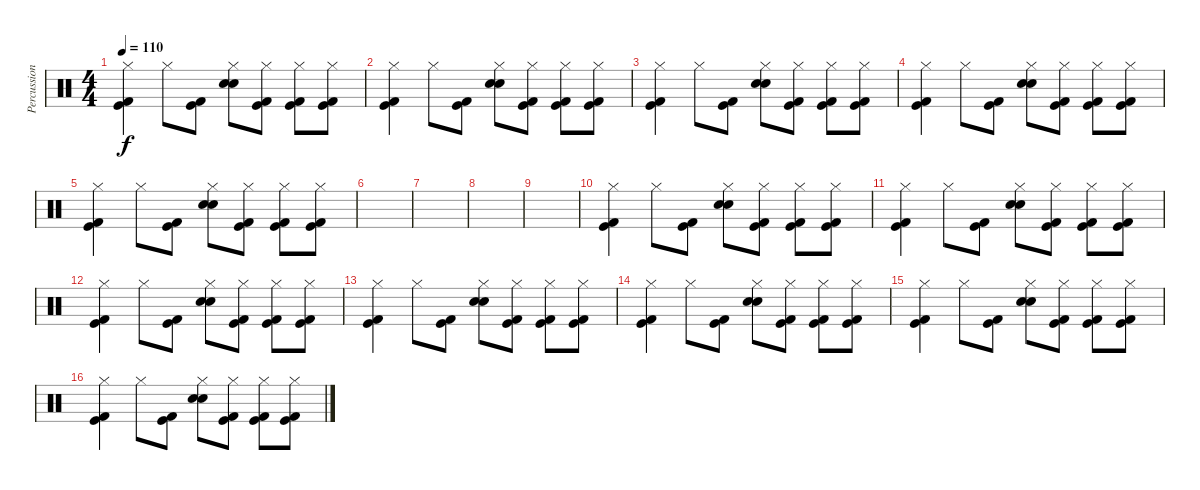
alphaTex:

\track ("Percussions" "Percussion") {instrument percussion}
\staff {score}
\articulation defaults
\ts (4 4)
\tempo 110
\clef neutral
\ks c
("Kick (hit) 2" "Kick (hit)" "Hi-Hat (closed)").4{dy f} "Hi-Hat (closed)".8 ("Kick (hit) 2" "Kick (hit)").8 ("Snare (hit) 2" "Hi-Hat (closed)" "Electric Snare (hit)").8 ("Kick (hit) 2" "Kick (hit)" "Hi-Hat (closed)").8 ("Kick (hit) 2" "Kick (hit)" "Hi-Hat (closed)").8 ("Kick (hit) 2" "Kick (hit)" "Hi-Hat (closed)").8 |
("Kick (hit) 2" "Kick (hit)" "Hi-Hat (closed)").4 "Hi-Hat (closed)".8 ("Kick (hit) 2" "Kick (hit)").8 ("Snare (hit) 2" "Hi-Hat (closed)" "Electric Snare (hit)").8 ("Kick (hit) 2" "Kick (hit)" "Hi-Hat (closed)").8 ("Kick (hit) 2" "Kick (hit)" "Hi-Hat (closed)").8 ("Kick (hit) 2" "Kick (hit)" "Hi-Hat (closed)").8 |
("Kick (hit) 2" "Kick (hit)" "Hi-Hat (closed)").4 "Hi-Hat (closed)".8 ("Kick (hit) 2" "Kick (hit)").8 ("Snare (hit) 2" "Hi-Hat (closed)" "Electric Snare (hit)").8 ("Kick (hit) 2" "Kick (hit)" "Hi-Hat (closed)").8 ("Kick (hit) 2" "Kick (hit)" "Hi-Hat (closed)").8 ("Kick (hit) 2" "Kick (hit)" "Hi-Hat (closed)").8 |
("Kick (hit) 2" "Kick (hit)" "Hi-Hat (closed)").4 "Hi-Hat (closed)".8 ("Kick (hit) 2" "Kick (hit)").8 ("Snare (hit) 2" "Hi-Hat (closed)" "Electric Snare (hit)").8 ("Kick (hit) 2" "Kick (hit)" "Hi-Hat (closed)").8 ("Kick (hit) 2" "Kick (hit)" "Hi-Hat (closed)").8 ("Kick (hit) 2" "Kick (hit)" "Hi-Hat (closed)").8 |
("Kick (hit) 2" "Kick (hit)" "Hi-Hat (closed)").4 "Hi-Hat (closed)".8 ("Kick (hit) 2" "Kick (hit)").8 ("Snare (hit) 2" "Hi-Hat (closed)" "Electric Snare (hit)").8 ("Kick (hit) 2" "Kick (hit)" "Hi-Hat (closed)").8 ("Kick (hit) 2" "Kick (hit)" "Hi-Hat (closed)").8 ("Kick (hit) 2" "Kick (hit)" "Hi-Hat (closed)").8 |
|
|
|
|
("Kick (hit) 2" "Kick (hit)" "Hi-Hat (closed)").4 "Hi-Hat (closed)".8 ("Kick (hit) 2" "Kick (hit)").8 ("Snare (hit) 2" "Hi-Hat (closed)" "Electric Snare (hit)").8 ("Kick (hit) 2" "Kick (hit)" "Hi-Hat (closed)").8 ("Kick (hit) 2" "Kick (hit)" "Hi-Hat (closed)").8 ("Kick (hit) 2" "Kick (hit)" "Hi-Hat (closed)").8 |
("Kick (hit) 2" "Kick (hit)" "Hi-Hat (closed)").4 "Hi-Hat (closed)".8 ("Kick (hit) 2" "Kick (hit)").8 ("Snare (hit) 2" "Hi-Hat (closed)" "Electric Snare (hit)").8 ("Kick (hit) 2" "Kick (hit)" "Hi-Hat (closed)").8 ("Kick (hit) 2" "Kick (hit)" "Hi-Hat (closed)").8 ("Kick (hit) 2" "Kick (hit)" "Hi-Hat (closed)").8 |
("Kick (hit) 2" "Kick (hit)" "Hi-Hat (closed)").4 "Hi-Hat (closed)".8 ("Kick (hit) 2" "Kick (hit)").8 ("Snare (hit) 2" "Hi-Hat (closed)" "Electric Snare (hit)").8 ("Kick (hit) 2" "Kick (hit)" "Hi-Hat (closed)").8 ("Kick (hit) 2" "Kick (hit)" "Hi-Hat (closed)").8 ("Kick (hit) 2" "Kick (hit)" "Hi-Hat (closed)").8 |
("Kick (hit) 2" "Kick (hit)" "Hi-Hat (closed)").4 "Hi-Hat (closed)".8 ("Kick (hit) 2" "Kick (hit)").8 ("Snare (hit) 2" "Hi-Hat (closed)" "Electric Snare (hit)").8 ("Kick (hit) 2" "Kick (hit)" "Hi-Hat (closed)").8 ("Kick (hit) 2" "Kick (hit)" "Hi-Hat (closed)").8 ("Kick (hit) 2" "Kick (hit)" "Hi-Hat (closed)").8 |
("Kick (hit) 2" "Kick (hit)" "Hi-Hat (closed)").4 "Hi-Hat (closed)".8 ("Kick (hit) 2" "Kick (hit)").8 ("Snare (hit) 2" "Hi-Hat (closed)" "Electric Snare (hit)").8 ("Kick (hit) 2" "Kick (hit)" "Hi-Hat (closed)").8 ("Kick (hit) 2" "Kick (hit)" "Hi-Hat (closed)").8 ("Kick (hit) 2" "Kick (hit)" "Hi-Hat (closed)").8 |
("Kick (hit) 2" "Kick (hit)" "Hi-Hat (closed)").4 "Hi-Hat (closed)".8 ("Kick (hit) 2" "Kick (hit)").8 ("Snare (hit) 2" "Hi-Hat (closed)" "Electric Snare (hit)").8 ("Kick (hit) 2" "Kick (hit)" "Hi-Hat (closed)").8 ("Kick (hit) 2" "Kick (hit)" "Hi-Hat (closed)").8 ("Kick (hit) 2" "Kick (hit)" "Hi-Hat (closed)").8 |
("Kick (hit) 2" "Kick (hit)" "Hi-Hat (closed)").4 "Hi-Hat (closed)".8 ("Kick (hit) 2" "Kick (hit)").8 ("Snare (hit) 2" "Hi-Hat (closed)" "Electric Snare (hit)").8 ("Kick (hit) 2" "Kick (hit)" "Hi-Hat (closed)").8 ("Kick (hit) 2" "Kick (hit)" "Hi-Hat (closed)").8 ("Kick (hit) 2" "Kick (hit)" "Hi-Hat (closed)").8
